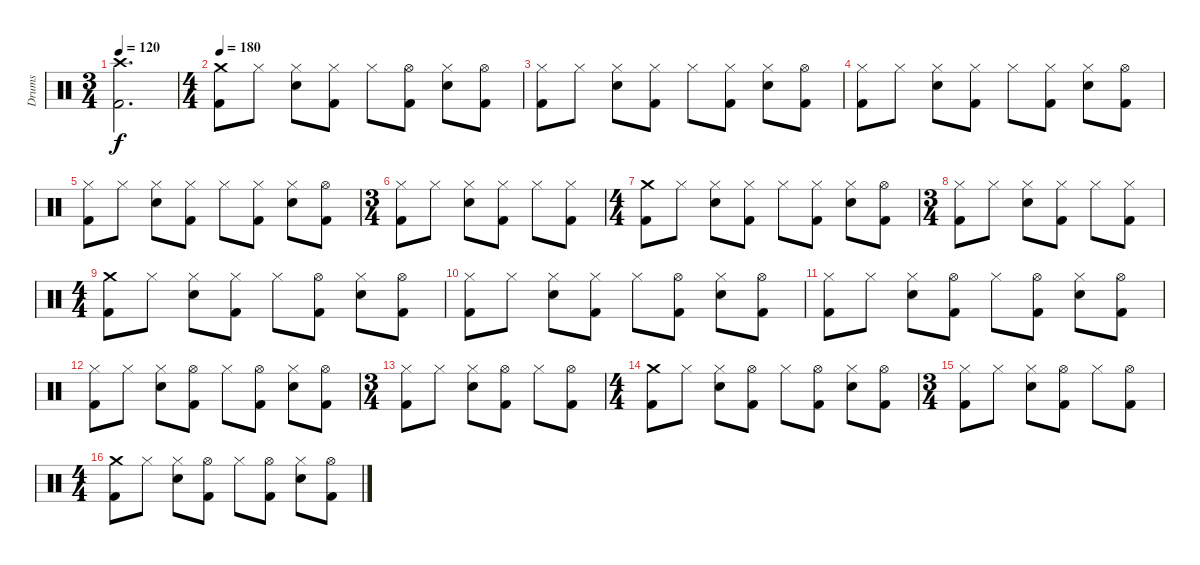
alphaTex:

\track ("Drums" "Drums") {instrument percussion}
\staff {score}
\articulation defaults
\ts (3 4)
\tempo 120
\clef neutral
\ks c
("Crash high (hit)" "Kick (hit) 2").2{d dy f} |
\ts (4 4)
\tempo 180
("Crash medium (hit)" "Kick (hit) 2").8 "Hi-Hat (closed)".8 ("Hi-Hat (closed)" "Electric Snare (hit)").8 ("Hi-Hat (closed)" "Kick (hit) 2").8 "Hi-Hat (closed)".8 ("Hi-Hat (open)" "Kick (hit) 2").8 ("Hi-Hat (closed)" "Electric Snare (hit)").8 ("Hi-Hat (open)" "Kick (hit) 2").8 |
("Hi-Hat (closed)" "Kick (hit) 2").8 "Hi-Hat (closed)".8 ("Hi-Hat (closed)" "Electric Snare (hit)").8 ("Hi-Hat (closed)" "Kick (hit) 2").8 "Hi-Hat (closed)".8 ("Hi-Hat (closed)" "Kick (hit) 2").8 ("Hi-Hat (closed)" "Electric Snare (hit)").8 ("Hi-Hat (open)" "Kick (hit) 2").8 |
("Hi-Hat (closed)" "Kick (hit) 2").8 "Hi-Hat (closed)".8 ("Hi-Hat (closed)" "Electric Snare (hit)").8 ("Hi-Hat (closed)" "Kick (hit) 2").8 "Hi-Hat (closed)".8 ("Hi-Hat (closed)" "Kick (hit) 2").8 ("Hi-Hat (closed)" "Electric Snare (hit)").8 ("Hi-Hat (open)" "Kick (hit) 2").8 |
("Hi-Hat (closed)" "Kick (hit) 2").8 "Hi-Hat (closed)".8 ("Hi-Hat (closed)" "Electric Snare (hit)").8 ("Hi-Hat (closed)" "Kick (hit) 2").8 "Hi-Hat (closed)".8 ("Hi-Hat (closed)" "Kick (hit) 2").8 ("Hi-Hat (closed)" "Electric Snare (hit)").8 ("Hi-Hat (open)" "Kick (hit) 2").8 |
\ts (3 4)
("Hi-Hat (closed)" "Kick (hit) 2").8 "Hi-Hat (closed)".8 ("Hi-Hat (closed)" "Electric Snare (hit)").8 ("Hi-Hat (closed)" "Kick (hit) 2").8 "Hi-Hat (closed)".8 ("Hi-Hat (closed)" "Kick (hit) 2").8 |
\ts (4 4)
("Crash medium (hit)" "Kick (hit) 2").8 "Hi-Hat (closed)".8 ("Hi-Hat (closed)" "Electric Snare (hit)").8 ("Hi-Hat (closed)" "Kick (hit) 2").8 "Hi-Hat (closed)".8 ("Hi-Hat (closed)" "Kick (hit) 2").8 ("Hi-Hat (closed)" "Electric Snare (hit)").8 ("Hi-Hat (open)" "Kick (hit) 2").8 |
\ts (3 4)
("Hi-Hat (closed)" "Kick (hit) 2").8 "Hi-Hat (closed)".8 ("Hi-Hat (closed)" "Electric Snare (hit)").8 ("Hi-Hat (closed)" "Kick (hit) 2").8 "Hi-Hat (closed)".8 ("Hi-Hat (closed)" "Kick (hit) 2").8 |
\ts (4 4)
("Crash medium (hit)" "Kick (hit) 2").8 "Hi-Hat (closed)".8 ("Hi-Hat (closed)" "Electric Snare (hit)").8 ("Hi-Hat (closed)" "Kick (hit) 2").8 "Hi-Hat (closed)".8 ("Hi-Hat (open)" "Kick (hit) 2").8 ("Hi-Hat (closed)" "Electric Snare (hit)").8 ("Hi-Hat (open)" "Kick (hit) 2").8 |
("Hi-Hat (closed)" "Kick (hit) 2").8 "Hi-Hat (closed)".8 ("Hi-Hat (closed)" "Electric Snare (hit)").8 ("Hi-Hat (closed)" "Kick (hit) 2").8 "Hi-Hat (closed)".8 ("Hi-Hat (open)" "Kick (hit) 2").8 ("Hi-Hat (closed)" "Electric Snare (hit)").8 ("Hi-Hat (open)" "Kick (hit) 2").8 |
("Hi-Hat (closed)" "Kick (hit) 2").8 "Hi-Hat (closed)".8 ("Hi-Hat (closed)" "Electric Snare (hit)").8 ("Hi-Hat (open)" "Kick (hit) 2").8 "Hi-Hat (closed)".8 ("Hi-Hat (open)" "Kick (hit) 2").8 ("Hi-Hat (closed)" "Electric Snare (hit)").8 ("Hi-Hat (open)" "Kick (hit) 2").8 |
("Hi-Hat (closed)" "Kick (hit) 2").8 "Hi-Hat (closed)".8 ("Hi-Hat (closed)" "Electric Snare (hit)").8 ("Hi-Hat (open)" "Kick (hit) 2").8 "Hi-Hat (closed)".8 ("Hi-Hat (open)" "Kick (hit) 2").8 ("Hi-Hat (closed)" "Electric Snare (hit)").8 ("Hi-Hat (open)" "Kick (hit) 2").8 |
\ts (3 4)
("Hi-Hat (closed)" "Kick (hit) 2").8 "Hi-Hat (closed)".8 ("Hi-Hat (closed)" "Electric Snare (hit)").8 ("Hi-Hat (open)" "Kick (hit) 2").8 "Hi-Hat (closed)".8 ("Hi-Hat (open)" "Kick (hit) 2").8 |
\ts (4 4)
("Crash medium (hit)" "Kick (hit) 2").8 "Hi-Hat (closed)".8 ("Hi-Hat (closed)" "Electric Snare (hit)").8 ("Hi-Hat (open)" "Kick (hit) 2").8 "Hi-Hat (closed)".8 ("Hi-Hat (open)" "Kick (hit) 2").8 ("Hi-Hat (closed)" "Electric Snare (hit)").8 ("Hi-Hat (open)" "Kick (hit) 2").8 |
\ts (3 4)
("Hi-Hat (closed)" "Kick (hit) 2").8 "Hi-Hat (closed)".8 ("Hi-Hat (closed)" "Electric Snare (hit)").8 ("Hi-Hat (open)" "Kick (hit) 2").8 "Hi-Hat (closed)".8 ("Hi-Hat (open)" "Kick (hit) 2").8 |
\ts (4 4)
("Crash medium (hit)" "Kick (hit) 2").8 "Hi-Hat (closed)".8 ("Hi-Hat (closed)" "Electric Snare (hit)").8 ("Hi-Hat (open)" "Kick (hit) 2").8 "Hi-Hat (closed)".8 ("Hi-Hat (open)" "Kick (hit) 2").8 ("Hi-Hat (closed)" "Electric Snare (hit)").8 ("Hi-Hat (open)" "Kick (hit) 2").8
